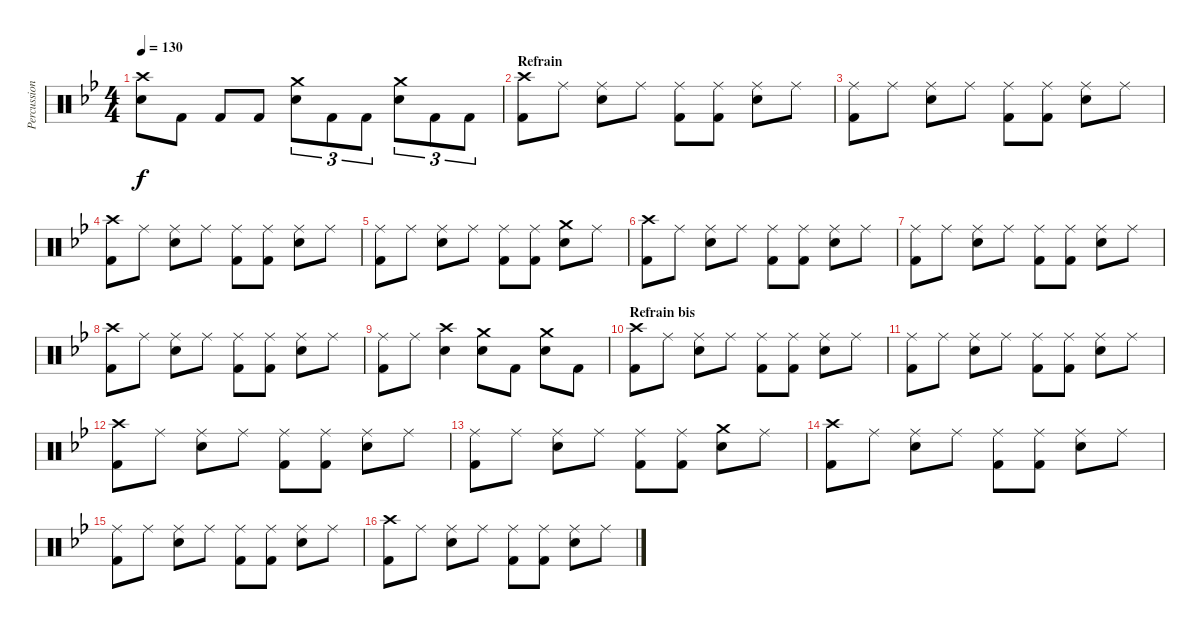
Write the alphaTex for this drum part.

\track ("Percussions" "Percussion") {instrument percussion}
\staff {score}
\articulation defaults
\ts (4 4)
\tempo 130
\clef neutral
\ks gminor
("Crash high (hit)" "Electric Snare (hit)").8{dy f} "Kick (hit) 2".8 "Kick (hit) 2".8 "Kick (hit) 2".8 ("Crash medium (hit)" "Electric Snare (hit)").8{tu (3 2)} "Kick (hit) 2".8{tu (3 2)} "Kick (hit) 2".8{tu (3 2)} ("Crash medium (hit)" "Electric Snare (hit)").8{tu (3 2)} "Kick (hit) 2".8{tu (3 2)} "Kick (hit) 2".8{tu (3 2)} |
\section ("" "Refrain")
("Crash high (hit)" "Kick (hit) 2").8 "Ride (middle)".8 ("Ride (middle)" "Electric Snare (hit)").8 "Ride (middle)".8 ("Ride (middle)" "Kick (hit) 2").8 ("Ride (middle)" "Kick (hit) 2").8 ("Ride (middle)" "Electric Snare (hit)").8 "Ride (middle)".8 |
("Ride (middle)" "Kick (hit) 2").8 "Ride (middle)".8 ("Ride (middle)" "Electric Snare (hit)").8 "Ride (middle)".8 ("Ride (middle)" "Kick (hit) 2").8 ("Ride (middle)" "Kick (hit) 2").8 ("Ride (middle)" "Electric Snare (hit)").8 "Ride (middle)".8 |
("Crash high (hit)" "Kick (hit) 2").8 "Ride (middle)".8 ("Ride (middle)" "Electric Snare (hit)").8 "Ride (middle)".8 ("Ride (middle)" "Kick (hit) 2").8 ("Ride (middle)" "Kick (hit) 2").8 ("Ride (middle)" "Electric Snare (hit)").8 "Ride (middle)".8 |
("Ride (middle)" "Kick (hit) 2").8 "Ride (middle)".8 ("Ride (middle)" "Electric Snare (hit)").8 "Ride (middle)".8 ("Ride (middle)" "Kick (hit) 2").8 ("Ride (middle)" "Kick (hit) 2").8 ("Crash medium (hit)" "Electric Snare (hit)").8 "Ride (middle)".8 |
("Crash high (hit)" "Kick (hit) 2").8 "Ride (middle)".8 ("Ride (middle)" "Electric Snare (hit)").8 "Ride (middle)".8 ("Ride (middle)" "Kick (hit) 2").8 ("Ride (middle)" "Kick (hit) 2").8 ("Ride (middle)" "Electric Snare (hit)").8 "Ride (middle)".8 |
("Ride (middle)" "Kick (hit) 2").8 "Ride (middle)".8 ("Ride (middle)" "Electric Snare (hit)").8 "Ride (middle)".8 ("Ride (middle)" "Kick (hit) 2").8 ("Ride (middle)" "Kick (hit) 2").8 ("Ride (middle)" "Electric Snare (hit)").8 "Ride (middle)".8 |
("Crash high (hit)" "Kick (hit) 2").8 "Ride (middle)".8 ("Ride (middle)" "Electric Snare (hit)").8 "Ride (middle)".8 ("Ride (middle)" "Kick (hit) 2").8 ("Ride (middle)" "Kick (hit) 2").8 ("Ride (middle)" "Electric Snare (hit)").8 "Ride (middle)".8 |
("Ride (middle)" "Kick (hit) 2").8 "Ride (middle)".8 ("Crash high (hit)" "Electric Snare (hit)").4 ("Crash medium (hit)" "Electric Snare (hit)").8 "Kick (hit) 2".8 ("Crash medium (hit)" "Electric Snare (hit)").8 "Kick (hit) 2".8 |
\section ("" "Refrain bis")
("Crash high (hit)" "Kick (hit) 2").8 "Ride (middle)".8 ("Ride (middle)" "Electric Snare (hit)").8 "Ride (middle)".8 ("Ride (middle)" "Kick (hit) 2").8 ("Ride (middle)" "Kick (hit) 2").8 ("Ride (middle)" "Electric Snare (hit)").8 "Ride (middle)".8 |
("Ride (middle)" "Kick (hit) 2").8 "Ride (middle)".8 ("Ride (middle)" "Electric Snare (hit)").8 "Ride (middle)".8 ("Ride (middle)" "Kick (hit) 2").8 ("Ride (middle)" "Kick (hit) 2").8 ("Ride (middle)" "Electric Snare (hit)").8 "Ride (middle)".8 |
("Crash high (hit)" "Kick (hit) 2").8 "Ride (middle)".8 ("Ride (middle)" "Electric Snare (hit)").8 "Ride (middle)".8 ("Ride (middle)" "Kick (hit) 2").8 ("Ride (middle)" "Kick (hit) 2").8 ("Ride (middle)" "Electric Snare (hit)").8 "Ride (middle)".8 |
("Ride (middle)" "Kick (hit) 2").8 "Ride (middle)".8 ("Ride (middle)" "Electric Snare (hit)").8 "Ride (middle)".8 ("Ride (middle)" "Kick (hit) 2").8 ("Ride (middle)" "Kick (hit) 2").8 ("Crash medium (hit)" "Electric Snare (hit)").8 "Ride (middle)".8 |
("Crash high (hit)" "Kick (hit) 2").8 "Ride (middle)".8 ("Ride (middle)" "Electric Snare (hit)").8 "Ride (middle)".8 ("Ride (middle)" "Kick (hit) 2").8 ("Ride (middle)" "Kick (hit) 2").8 ("Ride (middle)" "Electric Snare (hit)").8 "Ride (middle)".8 |
("Ride (middle)" "Kick (hit) 2").8 "Ride (middle)".8 ("Ride (middle)" "Electric Snare (hit)").8 "Ride (middle)".8 ("Ride (middle)" "Kick (hit) 2").8 ("Ride (middle)" "Kick (hit) 2").8 ("Ride (middle)" "Electric Snare (hit)").8 "Ride (middle)".8 |
("Crash high (hit)" "Kick (hit) 2").8 "Ride (middle)".8 ("Ride (middle)" "Electric Snare (hit)").8 "Ride (middle)".8 ("Ride (middle)" "Kick (hit) 2").8 ("Ride (middle)" "Kick (hit) 2").8 ("Ride (middle)" "Electric Snare (hit)").8 "Ride (middle)".8
